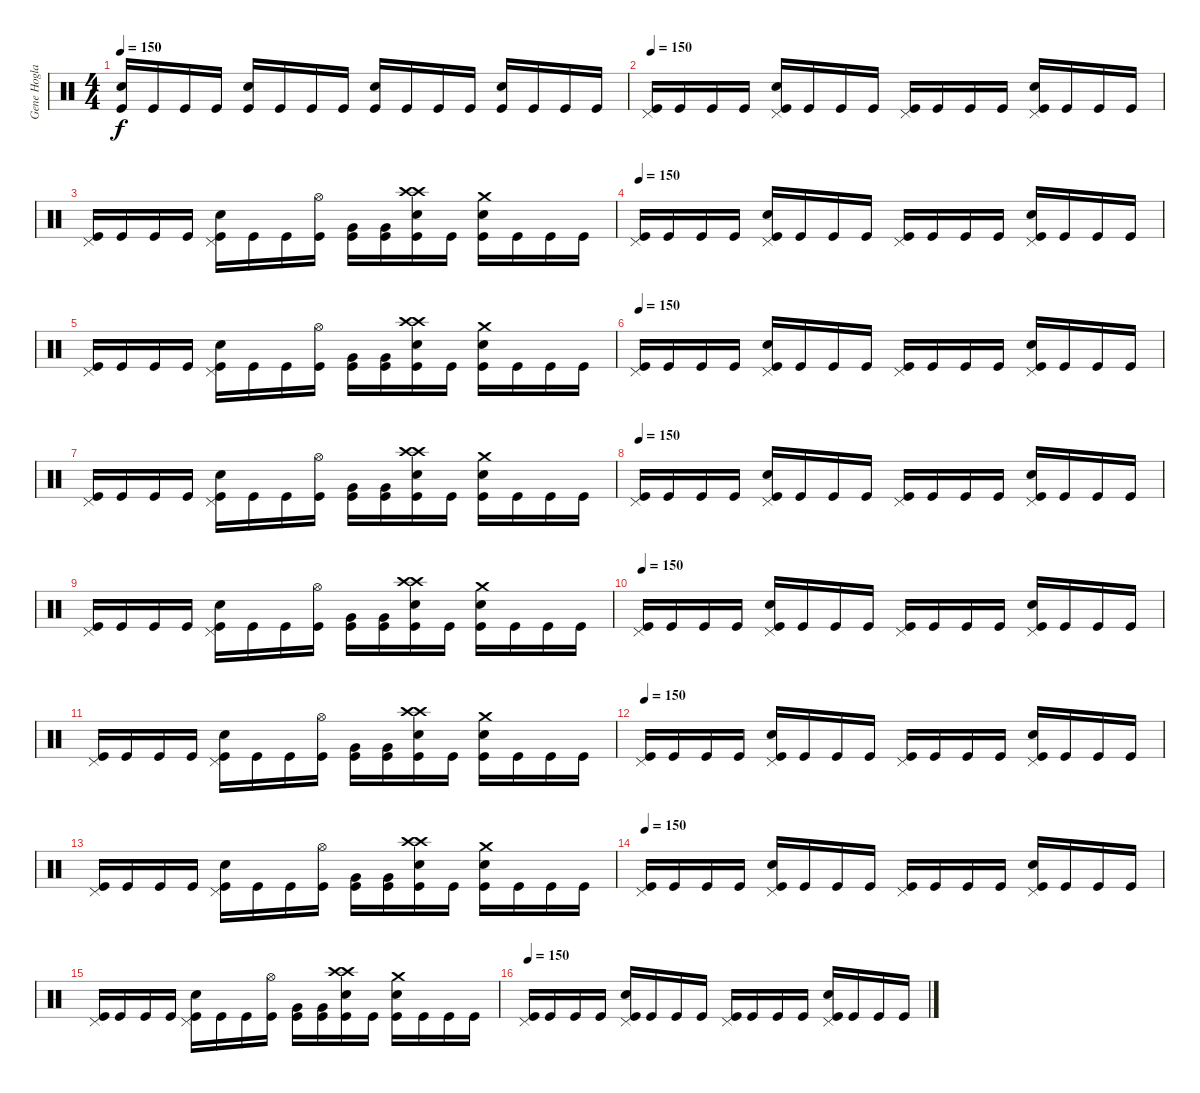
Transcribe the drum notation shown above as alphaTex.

\track ("Gene Hoglan" "Gene Hogla") {instrument percussion}
\staff {score}
\articulation defaults
\ts (4 4)
\tempo 150
\clef neutral
\ks c
("Snare (hit) 2" "Kick (hit)").16{dy f} "Kick (hit)".16 "Kick (hit)".16 "Kick (hit)".16 ("Snare (hit) 2" "Kick (hit)").16 "Kick (hit)".16 "Kick (hit)".16 "Kick (hit)".16 ("Snare (hit) 2" "Kick (hit)").16 "Kick (hit)".16 "Kick (hit)".16 "Kick (hit)".16 ("Snare (hit) 2" "Kick (hit)").16 "Kick (hit)".16 "Kick (hit)".16 "Kick (hit)".16 |
\tempo 150
("Pedal Hi-Hat (hit)" "Kick (hit)").16 "Kick (hit)".16 "Kick (hit)".16 "Kick (hit)".16 ("Pedal Hi-Hat (hit)" "Snare (hit) 2" "Kick (hit)").16 "Kick (hit)".16 "Kick (hit)".16 "Kick (hit)".16 ("Pedal Hi-Hat (hit)" "Kick (hit)").16 "Kick (hit)".16 "Kick (hit)".16 "Kick (hit)".16 ("Pedal Hi-Hat (hit)" "Snare (hit) 2" "Kick (hit)").16 "Kick (hit)".16 "Kick (hit)".16 "Kick (hit)".16 |
("Pedal Hi-Hat (hit)" "Kick (hit)").16 "Kick (hit)".16 "Kick (hit)".16 "Kick (hit)".16 ("Pedal Hi-Hat (hit)" "Snare (hit) 2" "Kick (hit)").16 "Kick (hit)".16 "Kick (hit)".16 ("Hi-Hat (open)" "Kick (hit)").16 ("Very Low Tom (hit)" "Kick (hit)").16 ("Very Low Tom (hit)" "Kick (hit)").16 ("Crash high (hit)" "Crash high (hit)" "Snare (hit) 2" "Kick (hit)").16 "Kick (hit)".16 ("Crash medium (hit)" "Snare (hit) 2" "Kick (hit)").16 "Kick (hit)".16 "Kick (hit)".16 "Kick (hit)".16 |
\tempo 150
("Pedal Hi-Hat (hit)" "Kick (hit)").16 "Kick (hit)".16 "Kick (hit)".16 "Kick (hit)".16 ("Pedal Hi-Hat (hit)" "Snare (hit) 2" "Kick (hit)").16 "Kick (hit)".16 "Kick (hit)".16 "Kick (hit)".16 ("Pedal Hi-Hat (hit)" "Kick (hit)").16 "Kick (hit)".16 "Kick (hit)".16 "Kick (hit)".16 ("Pedal Hi-Hat (hit)" "Snare (hit) 2" "Kick (hit)").16 "Kick (hit)".16 "Kick (hit)".16 "Kick (hit)".16 |
("Pedal Hi-Hat (hit)" "Kick (hit)").16 "Kick (hit)".16 "Kick (hit)".16 "Kick (hit)".16 ("Pedal Hi-Hat (hit)" "Snare (hit) 2" "Kick (hit)").16 "Kick (hit)".16 "Kick (hit)".16 ("Hi-Hat (open)" "Kick (hit)").16 ("Very Low Tom (hit)" "Kick (hit)").16 ("Very Low Tom (hit)" "Kick (hit)").16 ("Crash high (hit)" "Crash high (hit)" "Snare (hit) 2" "Kick (hit)").16 "Kick (hit)".16 ("Crash medium (hit)" "Snare (hit) 2" "Kick (hit)").16 "Kick (hit)".16 "Kick (hit)".16 "Kick (hit)".16 |
\tempo 150
("Pedal Hi-Hat (hit)" "Kick (hit)").16 "Kick (hit)".16 "Kick (hit)".16 "Kick (hit)".16 ("Pedal Hi-Hat (hit)" "Snare (hit) 2" "Kick (hit)").16 "Kick (hit)".16 "Kick (hit)".16 "Kick (hit)".16 ("Pedal Hi-Hat (hit)" "Kick (hit)").16 "Kick (hit)".16 "Kick (hit)".16 "Kick (hit)".16 ("Pedal Hi-Hat (hit)" "Snare (hit) 2" "Kick (hit)").16 "Kick (hit)".16 "Kick (hit)".16 "Kick (hit)".16 |
("Pedal Hi-Hat (hit)" "Kick (hit)").16 "Kick (hit)".16 "Kick (hit)".16 "Kick (hit)".16 ("Pedal Hi-Hat (hit)" "Snare (hit) 2" "Kick (hit)").16 "Kick (hit)".16 "Kick (hit)".16 ("Hi-Hat (open)" "Kick (hit)").16 ("Very Low Tom (hit)" "Kick (hit)").16 ("Very Low Tom (hit)" "Kick (hit)").16 ("Crash high (hit)" "Crash high (hit)" "Snare (hit) 2" "Kick (hit)").16 "Kick (hit)".16 ("Crash medium (hit)" "Snare (hit) 2" "Kick (hit)").16 "Kick (hit)".16 "Kick (hit)".16 "Kick (hit)".16 |
\tempo 150
("Pedal Hi-Hat (hit)" "Kick (hit)").16 "Kick (hit)".16 "Kick (hit)".16 "Kick (hit)".16 ("Pedal Hi-Hat (hit)" "Snare (hit) 2" "Kick (hit)").16 "Kick (hit)".16 "Kick (hit)".16 "Kick (hit)".16 ("Pedal Hi-Hat (hit)" "Kick (hit)").16 "Kick (hit)".16 "Kick (hit)".16 "Kick (hit)".16 ("Pedal Hi-Hat (hit)" "Snare (hit) 2" "Kick (hit)").16 "Kick (hit)".16 "Kick (hit)".16 "Kick (hit)".16 |
("Pedal Hi-Hat (hit)" "Kick (hit)").16 "Kick (hit)".16 "Kick (hit)".16 "Kick (hit)".16 ("Pedal Hi-Hat (hit)" "Snare (hit) 2" "Kick (hit)").16 "Kick (hit)".16 "Kick (hit)".16 ("Hi-Hat (open)" "Kick (hit)").16 ("Very Low Tom (hit)" "Kick (hit)").16 ("Very Low Tom (hit)" "Kick (hit)").16 ("Crash high (hit)" "Crash high (hit)" "Snare (hit) 2" "Kick (hit)").16 "Kick (hit)".16 ("Crash medium (hit)" "Snare (hit) 2" "Kick (hit)").16 "Kick (hit)".16 "Kick (hit)".16 "Kick (hit)".16 |
\tempo 150
("Pedal Hi-Hat (hit)" "Kick (hit)").16 "Kick (hit)".16 "Kick (hit)".16 "Kick (hit)".16 ("Pedal Hi-Hat (hit)" "Snare (hit) 2" "Kick (hit)").16 "Kick (hit)".16 "Kick (hit)".16 "Kick (hit)".16 ("Pedal Hi-Hat (hit)" "Kick (hit)").16 "Kick (hit)".16 "Kick (hit)".16 "Kick (hit)".16 ("Pedal Hi-Hat (hit)" "Snare (hit) 2" "Kick (hit)").16 "Kick (hit)".16 "Kick (hit)".16 "Kick (hit)".16 |
("Pedal Hi-Hat (hit)" "Kick (hit)").16 "Kick (hit)".16 "Kick (hit)".16 "Kick (hit)".16 ("Pedal Hi-Hat (hit)" "Snare (hit) 2" "Kick (hit)").16 "Kick (hit)".16 "Kick (hit)".16 ("Hi-Hat (open)" "Kick (hit)").16 ("Very Low Tom (hit)" "Kick (hit)").16 ("Very Low Tom (hit)" "Kick (hit)").16 ("Crash high (hit)" "Crash high (hit)" "Snare (hit) 2" "Kick (hit)").16 "Kick (hit)".16 ("Crash medium (hit)" "Snare (hit) 2" "Kick (hit)").16 "Kick (hit)".16 "Kick (hit)".16 "Kick (hit)".16 |
\tempo 150
("Pedal Hi-Hat (hit)" "Kick (hit)").16 "Kick (hit)".16 "Kick (hit)".16 "Kick (hit)".16 ("Pedal Hi-Hat (hit)" "Snare (hit) 2" "Kick (hit)").16 "Kick (hit)".16 "Kick (hit)".16 "Kick (hit)".16 ("Pedal Hi-Hat (hit)" "Kick (hit)").16 "Kick (hit)".16 "Kick (hit)".16 "Kick (hit)".16 ("Pedal Hi-Hat (hit)" "Snare (hit) 2" "Kick (hit)").16 "Kick (hit)".16 "Kick (hit)".16 "Kick (hit)".16 |
("Pedal Hi-Hat (hit)" "Kick (hit)").16 "Kick (hit)".16 "Kick (hit)".16 "Kick (hit)".16 ("Pedal Hi-Hat (hit)" "Snare (hit) 2" "Kick (hit)").16 "Kick (hit)".16 "Kick (hit)".16 ("Hi-Hat (open)" "Kick (hit)").16 ("Very Low Tom (hit)" "Kick (hit)").16 ("Very Low Tom (hit)" "Kick (hit)").16 ("Crash high (hit)" "Crash high (hit)" "Snare (hit) 2" "Kick (hit)").16 "Kick (hit)".16 ("Crash medium (hit)" "Snare (hit) 2" "Kick (hit)").16 "Kick (hit)".16 "Kick (hit)".16 "Kick (hit)".16 |
\tempo 150
("Pedal Hi-Hat (hit)" "Kick (hit)").16 "Kick (hit)".16 "Kick (hit)".16 "Kick (hit)".16 ("Pedal Hi-Hat (hit)" "Snare (hit) 2" "Kick (hit)").16 "Kick (hit)".16 "Kick (hit)".16 "Kick (hit)".16 ("Pedal Hi-Hat (hit)" "Kick (hit)").16 "Kick (hit)".16 "Kick (hit)".16 "Kick (hit)".16 ("Pedal Hi-Hat (hit)" "Snare (hit) 2" "Kick (hit)").16 "Kick (hit)".16 "Kick (hit)".16 "Kick (hit)".16 |
("Pedal Hi-Hat (hit)" "Kick (hit)").16 "Kick (hit)".16 "Kick (hit)".16 "Kick (hit)".16 ("Pedal Hi-Hat (hit)" "Snare (hit) 2" "Kick (hit)").16 "Kick (hit)".16 "Kick (hit)".16 ("Hi-Hat (open)" "Kick (hit)").16 ("Very Low Tom (hit)" "Kick (hit)").16 ("Very Low Tom (hit)" "Kick (hit)").16 ("Crash high (hit)" "Crash high (hit)" "Snare (hit) 2" "Kick (hit)").16 "Kick (hit)".16 ("Crash medium (hit)" "Snare (hit) 2" "Kick (hit)").16 "Kick (hit)".16 "Kick (hit)".16 "Kick (hit)".16 |
\tempo 150
("Pedal Hi-Hat (hit)" "Kick (hit)").16 "Kick (hit)".16 "Kick (hit)".16 "Kick (hit)".16 ("Pedal Hi-Hat (hit)" "Snare (hit) 2" "Kick (hit)").16 "Kick (hit)".16 "Kick (hit)".16 "Kick (hit)".16 ("Pedal Hi-Hat (hit)" "Kick (hit)").16 "Kick (hit)".16 "Kick (hit)".16 "Kick (hit)".16 ("Pedal Hi-Hat (hit)" "Snare (hit) 2" "Kick (hit)").16 "Kick (hit)".16 "Kick (hit)".16 "Kick (hit)".16
